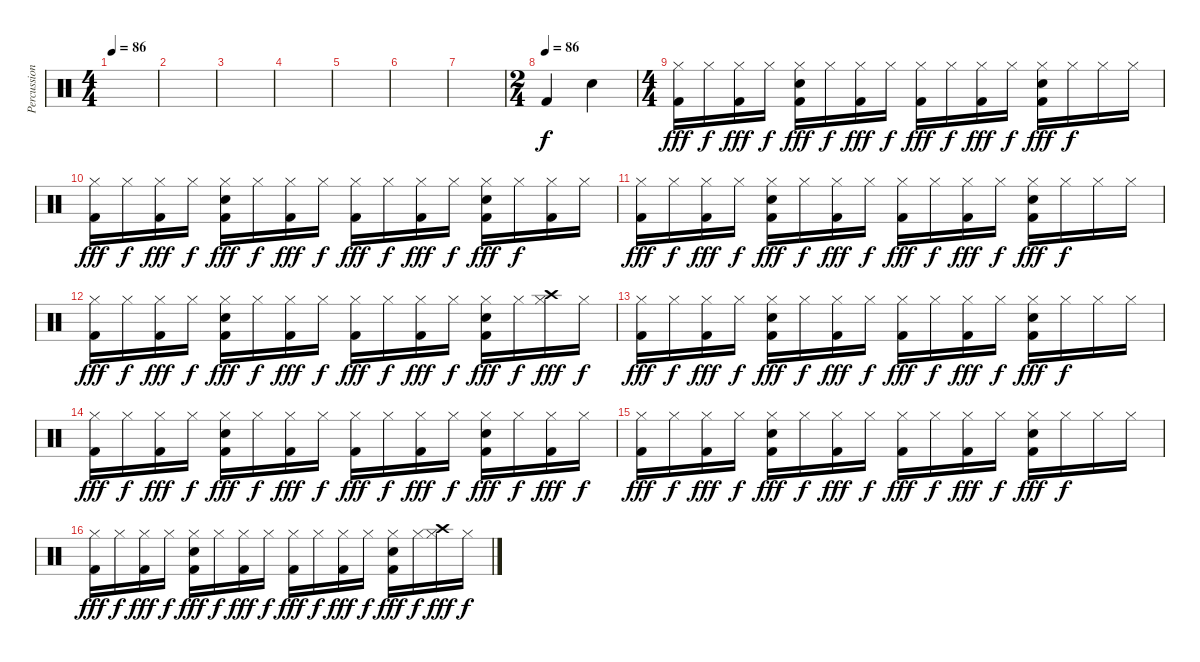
\track ("Percussion" "Percussion") {instrument percussion}
\staff {score}
\articulation defaults
\ts (4 4)
\tempo 86
\tempo 134
\tempo 86
\clef neutral
\ks c
|
|
|
|
|
|
|
\ts (2 4)
\tempo (86)
"Kick (hit) 2".4 "Snare (hit) 2".4 |
\ts (4 4)
("Hi-Hat (closed)" "Kick (hit) 2").16{dy fff} "Hi-Hat (closed)".16{dy f} ("Hi-Hat (closed)" "Kick (hit) 2").16{dy fff} "Hi-Hat (closed)".16{dy f} ("Hi-Hat (closed)" "Electric Snare (hit)" "Kick (hit) 2").16{dy fff} "Hi-Hat (closed)".16{dy f} ("Hi-Hat (closed)" "Kick (hit) 2").16{dy fff} "Hi-Hat (closed)".16{dy f} ("Hi-Hat (closed)" "Kick (hit) 2").16{dy fff} "Hi-Hat (closed)".16{dy f} ("Hi-Hat (closed)" "Kick (hit) 2").16{dy fff} "Hi-Hat (closed)".16{dy f} ("Hi-Hat (closed)" "Electric Snare (hit)" "Kick (hit) 2").16{dy fff} "Hi-Hat (closed)".16{dy f} "Hi-Hat (closed)".16 "Hi-Hat (closed)".16 |
("Hi-Hat (closed)" "Kick (hit) 2").16{dy fff} "Hi-Hat (closed)".16{dy f} ("Hi-Hat (closed)" "Kick (hit) 2").16{dy fff} "Hi-Hat (closed)".16{dy f} ("Hi-Hat (closed)" "Electric Snare (hit)" "Kick (hit) 2").16{dy fff} "Hi-Hat (closed)".16{dy f} ("Hi-Hat (closed)" "Kick (hit) 2").16{dy fff} "Hi-Hat (closed)".16{dy f} ("Hi-Hat (closed)" "Kick (hit) 2").16{dy fff} "Hi-Hat (closed)".16{dy f} ("Hi-Hat (closed)" "Kick (hit) 2").16{dy fff} "Hi-Hat (closed)".16{dy f} ("Hi-Hat (closed)" "Electric Snare (hit)" "Kick (hit) 2").16{dy fff} "Hi-Hat (closed)".16{dy f} ("Hi-Hat (closed)" "Kick (hit) 2").16 "Hi-Hat (closed)".16 |
("Hi-Hat (closed)" "Kick (hit) 2").16{dy fff} "Hi-Hat (closed)".16{dy f} ("Hi-Hat (closed)" "Kick (hit) 2").16{dy fff} "Hi-Hat (closed)".16{dy f} ("Hi-Hat (closed)" "Electric Snare (hit)" "Kick (hit) 2").16{dy fff} "Hi-Hat (closed)".16{dy f} ("Hi-Hat (closed)" "Kick (hit) 2").16{dy fff} "Hi-Hat (closed)".16{dy f} ("Hi-Hat (closed)" "Kick (hit) 2").16{dy fff} "Hi-Hat (closed)".16{dy f} ("Hi-Hat (closed)" "Kick (hit) 2").16{dy fff} "Hi-Hat (closed)".16{dy f} ("Hi-Hat (closed)" "Electric Snare (hit)" "Kick (hit) 2").16{dy fff} "Hi-Hat (closed)".16{dy f} "Hi-Hat (closed)".16 "Hi-Hat (closed)".16 |
("Hi-Hat (closed)" "Kick (hit) 2").16{dy fff} "Hi-Hat (closed)".16{dy f} ("Hi-Hat (closed)" "Kick (hit) 2").16{dy fff} "Hi-Hat (closed)".16{dy f} ("Hi-Hat (closed)" "Electric Snare (hit)" "Kick (hit) 2").16{dy fff} "Hi-Hat (closed)".16{dy f} ("Hi-Hat (closed)" "Kick (hit) 2").16{dy fff} "Hi-Hat (closed)".16{dy f} ("Hi-Hat (closed)" "Kick (hit) 2").16{dy fff} "Hi-Hat (closed)".16{dy f} ("Hi-Hat (closed)" "Kick (hit) 2").16{dy fff} "Hi-Hat (closed)".16{dy f} ("Hi-Hat (closed)" "Electric Snare (hit)" "Kick (hit) 2").16{dy fff} "Hi-Hat (closed)".16{dy f} ("Hi-Hat (closed)" "Crash high (hit)").16{dy fff} "Hi-Hat (closed)".16{dy f} |
("Hi-Hat (closed)" "Kick (hit) 2").16{dy fff} "Hi-Hat (closed)".16{dy f} ("Hi-Hat (closed)" "Kick (hit) 2").16{dy fff} "Hi-Hat (closed)".16{dy f} ("Hi-Hat (closed)" "Electric Snare (hit)" "Kick (hit) 2").16{dy fff} "Hi-Hat (closed)".16{dy f} ("Hi-Hat (closed)" "Kick (hit) 2").16{dy fff} "Hi-Hat (closed)".16{dy f} ("Hi-Hat (closed)" "Kick (hit) 2").16{dy fff} "Hi-Hat (closed)".16{dy f} ("Hi-Hat (closed)" "Kick (hit) 2").16{dy fff} "Hi-Hat (closed)".16{dy f} ("Hi-Hat (closed)" "Electric Snare (hit)" "Kick (hit) 2").16{dy fff} "Hi-Hat (closed)".16{dy f} "Hi-Hat (closed)".16 "Hi-Hat (closed)".16 |
("Hi-Hat (closed)" "Kick (hit) 2").16{dy fff} "Hi-Hat (closed)".16{dy f} ("Hi-Hat (closed)" "Kick (hit) 2").16{dy fff} "Hi-Hat (closed)".16{dy f} ("Hi-Hat (closed)" "Electric Snare (hit)" "Kick (hit) 2").16{dy fff} "Hi-Hat (closed)".16{dy f} ("Hi-Hat (closed)" "Kick (hit) 2").16{dy fff} "Hi-Hat (closed)".16{dy f} ("Hi-Hat (closed)" "Kick (hit) 2").16{dy fff} "Hi-Hat (closed)".16{dy f} ("Hi-Hat (closed)" "Kick (hit) 2").16{dy fff} "Hi-Hat (closed)".16{dy f} ("Hi-Hat (closed)" "Electric Snare (hit)" "Kick (hit) 2").16{dy fff} "Hi-Hat (closed)".16{dy f} ("Hi-Hat (closed)" "Kick (hit) 2").16{dy fff} "Hi-Hat (closed)".16{dy f} |
("Hi-Hat (closed)" "Kick (hit) 2").16{dy fff} "Hi-Hat (closed)".16{dy f} ("Hi-Hat (closed)" "Kick (hit) 2").16{dy fff} "Hi-Hat (closed)".16{dy f} ("Hi-Hat (closed)" "Electric Snare (hit)" "Kick (hit) 2").16{dy fff} "Hi-Hat (closed)".16{dy f} ("Hi-Hat (closed)" "Kick (hit) 2").16{dy fff} "Hi-Hat (closed)".16{dy f} ("Hi-Hat (closed)" "Kick (hit) 2").16{dy fff} "Hi-Hat (closed)".16{dy f} ("Hi-Hat (closed)" "Kick (hit) 2").16{dy fff} "Hi-Hat (closed)".16{dy f} ("Hi-Hat (closed)" "Electric Snare (hit)" "Kick (hit) 2").16{dy fff} "Hi-Hat (closed)".16{dy f} "Hi-Hat (closed)".16 "Hi-Hat (closed)".16 |
("Hi-Hat (closed)" "Kick (hit) 2").16{dy fff} "Hi-Hat (closed)".16{dy f} ("Hi-Hat (closed)" "Kick (hit) 2").16{dy fff} "Hi-Hat (closed)".16{dy f} ("Hi-Hat (closed)" "Electric Snare (hit)" "Kick (hit) 2").16{dy fff} "Hi-Hat (closed)".16{dy f} ("Hi-Hat (closed)" "Kick (hit) 2").16{dy fff} "Hi-Hat (closed)".16{dy f} ("Hi-Hat (closed)" "Kick (hit) 2").16{dy fff} "Hi-Hat (closed)".16{dy f} ("Hi-Hat (closed)" "Kick (hit) 2").16{dy fff} "Hi-Hat (closed)".16{dy f} ("Hi-Hat (closed)" "Electric Snare (hit)" "Kick (hit) 2").16{dy fff} "Hi-Hat (closed)".16{dy f} ("Hi-Hat (closed)" "Crash high (hit)").16{dy fff} "Hi-Hat (closed)".16{dy f}
